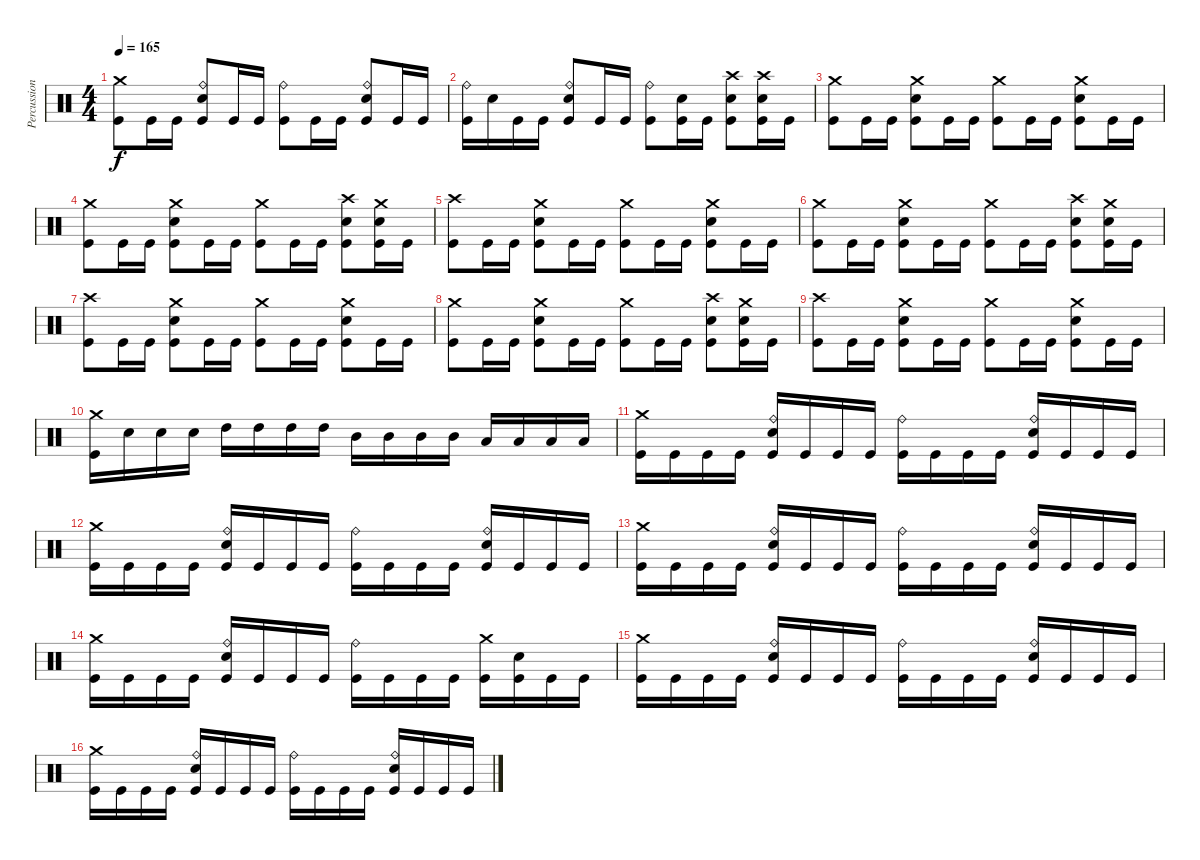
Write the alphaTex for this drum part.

\track ("Percussion" "Percussion") {instrument percussion}
\staff {score}
\articulation defaults
\ts (4 4)
\tempo 165
\clef neutral
\ks c
("Crash medium (hit)" "Kick (hit)").8{dy f} "Kick (hit)".16 "Kick (hit)".16 ("Ride (bell)" "Snare (hit) 2" "Kick (hit)").8 "Kick (hit)".16 "Kick (hit)".16 ("Ride (bell)" "Kick (hit)").8 "Kick (hit)".16 "Kick (hit)".16 ("Ride (bell)" "Snare (hit) 2" "Kick (hit)").8 "Kick (hit)".16 "Kick (hit)".16 |
("Ride (bell)" "Kick (hit)").16 "Snare (hit) 2".16 "Kick (hit)".16 "Kick (hit)".16 ("Ride (bell)" "Snare (hit) 2" "Kick (hit)").8 "Kick (hit)".16 "Kick (hit)".16 ("Ride (bell)" "Kick (hit)").8 ("Snare (hit) 2" "Kick (hit)").16 "Kick (hit)".16 ("Crash high (hit)" "Snare (hit) 2" "Kick (hit)").8 ("Crash high (hit)" "Snare (hit) 2" "Kick (hit)").16 "Kick (hit)".16 |
("Crash medium (hit)" "Kick (hit)").8 "Kick (hit)".16 "Kick (hit)".16 ("Crash medium (hit)" "Snare (hit) 2" "Kick (hit)").8 "Kick (hit)".16 "Kick (hit)".16 ("Crash medium (hit)" "Kick (hit)").8 "Kick (hit)".16 "Kick (hit)".16 ("Crash medium (hit)" "Snare (hit) 2" "Kick (hit)").8 "Kick (hit)".16 "Kick (hit)".16 |
("Crash medium (hit)" "Kick (hit)").8 "Kick (hit)".16 "Kick (hit)".16 ("Crash medium (hit)" "Snare (hit) 2" "Kick (hit)").8 "Kick (hit)".16 "Kick (hit)".16 ("Crash medium (hit)" "Kick (hit)").8 "Kick (hit)".16 "Kick (hit)".16 ("Crash high (hit)" "Snare (hit) 2" "Kick (hit)").8 ("Crash medium (hit)" "Snare (hit) 2" "Kick (hit)").16 "Kick (hit)".16 |
("Crash high (hit)" "Kick (hit)").8 "Kick (hit)".16 "Kick (hit)".16 ("Crash medium (hit)" "Snare (hit) 2" "Kick (hit)").8 "Kick (hit)".16 "Kick (hit)".16 ("Crash medium (hit)" "Kick (hit)").8 "Kick (hit)".16 "Kick (hit)".16 ("Crash medium (hit)" "Snare (hit) 2" "Kick (hit)").8 "Kick (hit)".16 "Kick (hit)".16 |
("Crash medium (hit)" "Kick (hit)").8 "Kick (hit)".16 "Kick (hit)".16 ("Crash medium (hit)" "Snare (hit) 2" "Kick (hit)").8 "Kick (hit)".16 "Kick (hit)".16 ("Crash medium (hit)" "Kick (hit)").8 "Kick (hit)".16 "Kick (hit)".16 ("Crash high (hit)" "Snare (hit) 2" "Kick (hit)").8 ("Crash medium (hit)" "Snare (hit) 2" "Kick (hit)").16 "Kick (hit)".16 |
("Crash high (hit)" "Kick (hit)").8 "Kick (hit)".16 "Kick (hit)".16 ("Crash medium (hit)" "Snare (hit) 2" "Kick (hit)").8 "Kick (hit)".16 "Kick (hit)".16 ("Crash medium (hit)" "Kick (hit)").8 "Kick (hit)".16 "Kick (hit)".16 ("Crash medium (hit)" "Snare (hit) 2" "Kick (hit)").8 "Kick (hit)".16 "Kick (hit)".16 |
("Crash medium (hit)" "Kick (hit)").8 "Kick (hit)".16 "Kick (hit)".16 ("Crash medium (hit)" "Snare (hit) 2" "Kick (hit)").8 "Kick (hit)".16 "Kick (hit)".16 ("Crash medium (hit)" "Kick (hit)").8 "Kick (hit)".16 "Kick (hit)".16 ("Crash high (hit)" "Snare (hit) 2" "Kick (hit)").8 ("Crash medium (hit)" "Snare (hit) 2" "Kick (hit)").16 "Kick (hit)".16 |
("Crash high (hit)" "Kick (hit)").8 "Kick (hit)".16 "Kick (hit)".16 ("Crash medium (hit)" "Snare (hit) 2" "Kick (hit)").8 "Kick (hit)".16 "Kick (hit)".16 ("Crash medium (hit)" "Kick (hit)").8 "Kick (hit)".16 "Kick (hit)".16 ("Crash medium (hit)" "Snare (hit) 2" "Kick (hit)").8 "Kick (hit)".16 "Kick (hit)".16 |
("Crash medium (hit)" "Kick (hit)").16 "Snare (hit) 2".16 "Snare (hit) 2".16 "Snare (hit) 2".16 "High Tom (hit)".16 "High Tom (hit)".16 "High Tom (hit)".16 "High Tom (hit)".16 "Mid Tom (hit)".16 "Mid Tom (hit)".16 "Mid Tom (hit)".16 "Mid Tom (hit)".16 "Low Tom (hit)".16 "Low Tom (hit)".16 "Low Tom (hit)".16 "Low Tom (hit)".16 |
("Crash medium (hit)" "Kick (hit)").16 "Kick (hit)".16 "Kick (hit)".16 "Kick (hit)".16 ("Ride (bell)" "Snare (hit) 2" "Kick (hit)").16 "Kick (hit)".16 "Kick (hit)".16 "Kick (hit)".16 ("Ride (bell)" "Kick (hit)").16 "Kick (hit)".16 "Kick (hit)".16 "Kick (hit)".16 ("Ride (bell)" "Snare (hit) 2" "Kick (hit)").16 "Kick (hit)".16 "Kick (hit)".16 "Kick (hit)".16 |
("Crash medium (hit)" "Kick (hit)").16 "Kick (hit)".16 "Kick (hit)".16 "Kick (hit)".16 ("Ride (bell)" "Snare (hit) 2" "Kick (hit)").16 "Kick (hit)".16 "Kick (hit)".16 "Kick (hit)".16 ("Ride (bell)" "Kick (hit)").16 "Kick (hit)".16 "Kick (hit)".16 "Kick (hit)".16 ("Ride (bell)" "Snare (hit) 2" "Kick (hit)").16 "Kick (hit)".16 "Kick (hit)".16 "Kick (hit)".16 |
("Crash medium (hit)" "Kick (hit)").16 "Kick (hit)".16 "Kick (hit)".16 "Kick (hit)".16 ("Ride (bell)" "Snare (hit) 2" "Kick (hit)").16 "Kick (hit)".16 "Kick (hit)".16 "Kick (hit)".16 ("Ride (bell)" "Kick (hit)").16 "Kick (hit)".16 "Kick (hit)".16 "Kick (hit)".16 ("Ride (bell)" "Snare (hit) 2" "Kick (hit)").16 "Kick (hit)".16 "Kick (hit)".16 "Kick (hit)".16 |
("Crash medium (hit)" "Kick (hit)").16 "Kick (hit)".16 "Kick (hit)".16 "Kick (hit)".16 ("Ride (bell)" "Snare (hit) 2" "Kick (hit)").16 "Kick (hit)".16 "Kick (hit)".16 "Kick (hit)".16 ("Ride (bell)" "Kick (hit)").16 "Kick (hit)".16 "Kick (hit)".16 "Kick (hit)".16 ("Crash medium (hit)" "Kick (hit)").16 ("Snare (hit) 2" "Kick (hit)").16 "Kick (hit)".16 "Kick (hit)".16 |
("Crash medium (hit)" "Kick (hit)").16 "Kick (hit)".16 "Kick (hit)".16 "Kick (hit)".16 ("Ride (bell)" "Snare (hit) 2" "Kick (hit)").16 "Kick (hit)".16 "Kick (hit)".16 "Kick (hit)".16 ("Ride (bell)" "Kick (hit)").16 "Kick (hit)".16 "Kick (hit)".16 "Kick (hit)".16 ("Ride (bell)" "Snare (hit) 2" "Kick (hit)").16 "Kick (hit)".16 "Kick (hit)".16 "Kick (hit)".16 |
("Crash medium (hit)" "Kick (hit)").16 "Kick (hit)".16 "Kick (hit)".16 "Kick (hit)".16 ("Ride (bell)" "Snare (hit) 2" "Kick (hit)").16 "Kick (hit)".16 "Kick (hit)".16 "Kick (hit)".16 ("Ride (bell)" "Kick (hit)").16 "Kick (hit)".16 "Kick (hit)".16 "Kick (hit)".16 ("Ride (bell)" "Snare (hit) 2" "Kick (hit)").16 "Kick (hit)".16 "Kick (hit)".16 "Kick (hit)".16
